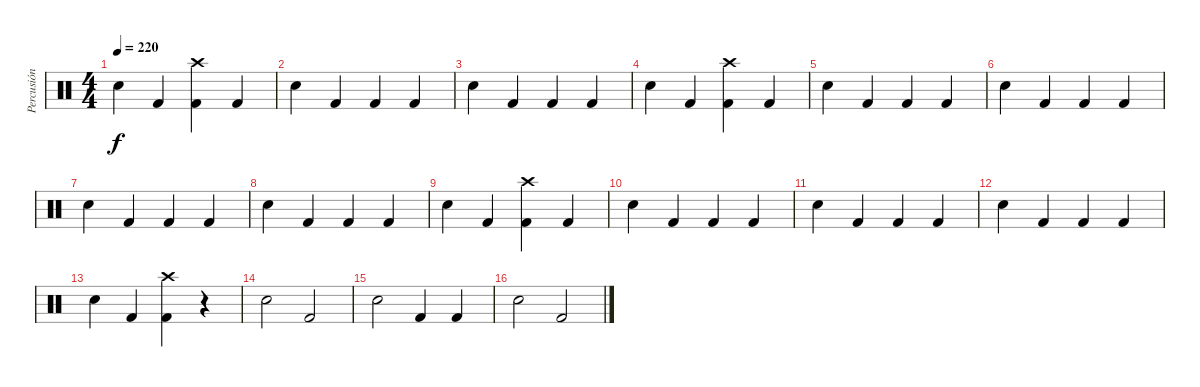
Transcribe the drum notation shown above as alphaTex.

\track ("Percusión" "Percusión") {instrument percussion}
\staff {score}
\articulation defaults
\ts (4 4)
\tempo 220
\clef neutral
\ks c "Electric Snare (hit)".4{dy f} "Kick (hit) 2".4
("Crash high (hit)" "Kick (hit) 2").4 "Kick (hit) 2".4 |
"Electric Snare (hit)".4 "Kick (hit) 2".4 "Kick (hit) 2".4 "Kick (hit) 2".4 |
"Electric Snare (hit)".4 "Kick (hit) 2".4 "Kick (hit) 2".4 "Kick (hit) 2".4 |
"Electric Snare (hit)".4 "Kick (hit) 2".4 ("Crash high (hit)" "Kick (hit) 2").4 "Kick (hit) 2".4 |
"Electric Snare (hit)".4 "Kick (hit) 2".4 "Kick (hit) 2".4 "Kick (hit) 2".4 |
"Electric Snare (hit)".4 "Kick (hit) 2".4 "Kick (hit) 2".4 "Kick (hit) 2".4 |
"Electric Snare (hit)".4 "Kick (hit) 2".4 "Kick (hit) 2".4 "Kick (hit) 2".4 |
"Electric Snare (hit)".4 "Kick (hit) 2".4 "Kick (hit) 2".4 "Kick (hit) 2".4 |
"Electric Snare (hit)".4 "Kick (hit) 2".4 ("Crash high (hit)" "Kick (hit) 2").4 "Kick (hit) 2".4 |
"Electric Snare (hit)".4 "Kick (hit) 2".4 "Kick (hit) 2".4 "Kick (hit) 2".4 |
"Electric Snare (hit)".4 "Kick (hit) 2".4 "Kick (hit) 2".4 "Kick (hit) 2".4 |
"Electric Snare (hit)".4 "Kick (hit) 2".4 "Kick (hit) 2".4 "Kick (hit) 2".4 |
"Electric Snare (hit)".4 "Kick (hit) 2".4 ("Crash high (hit)" "Kick (hit) 2").4 r.4 |
"Electric Snare (hit)".2 "Kick (hit) 2".2 |
"Electric Snare (hit)".2 "Kick (hit) 2".4 "Kick (hit) 2".4 |
"Electric Snare (hit)".2 "Kick (hit) 2".2
